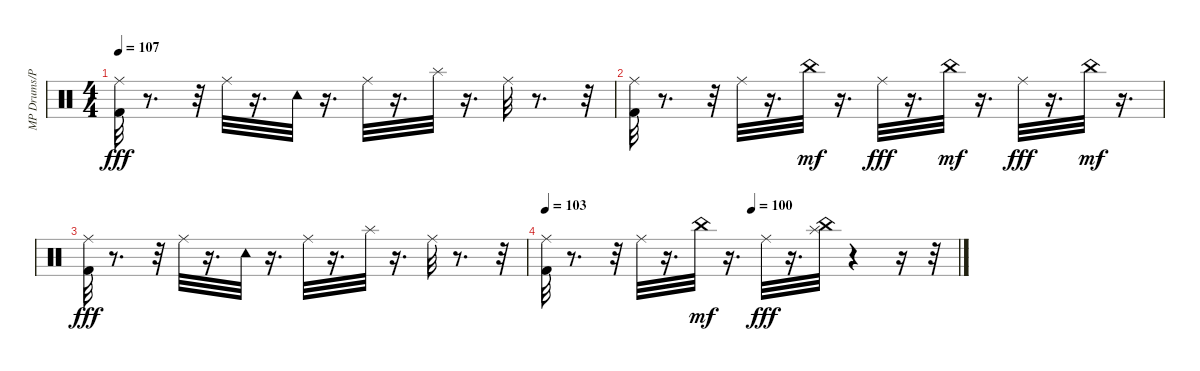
\track ("MP Drums/Percussion" "MP Drums/P") {instrument percussion}
\staff {score}
\articulation defaults
\ts (4 4)
\tempo 107
\clef neutral
\ks c
("Kick (hit) 2" "Ride (middle)").32{dy fff} r.8{d} r.32 "Ride (middle)".32 r.16{d} "Tambourine (hit)".32 r.16{d} "Ride (middle)".32 r.16{d} "Splash (hit)".32 r.16{d} "Ride (middle)".32 r.8{d} r.32 |
("Kick (hit) 2" "Ride (middle)").32 r.8{d} r.32 "Ride (middle)".32 r.16{d} "China (hit)".32{dy mf} r.16{d} "Ride (middle)".32{dy fff} r.16{d} "China (hit)".32{dy mf} r.16{d} "Ride (middle)".32{dy fff} r.16{d} "China (hit)".32{dy mf} r.16{d} |
("Kick (hit) 2" "Ride (middle)").32{dy fff} r.8{d} r.32 "Ride (middle)".32 r.16{d} "Tambourine (hit)".32 r.16{d} "Ride (middle)".32 r.16{d} "Splash (hit)".32 r.16{d} "Ride (middle)".32 r.8{d} r.32 |
\tempo 103
\tempo (100 0.5)
("Kick (hit) 2" "Ride (middle)").32 r.8{d} r.32 "Ride (middle)".32 r.16{d} "China (hit)".32{dy mf} r.16{d} "Ride (middle)".32{dy fff} r.16{d} ("China (hit)" "Splash (hit)").32 r.4 r.16 r.32
